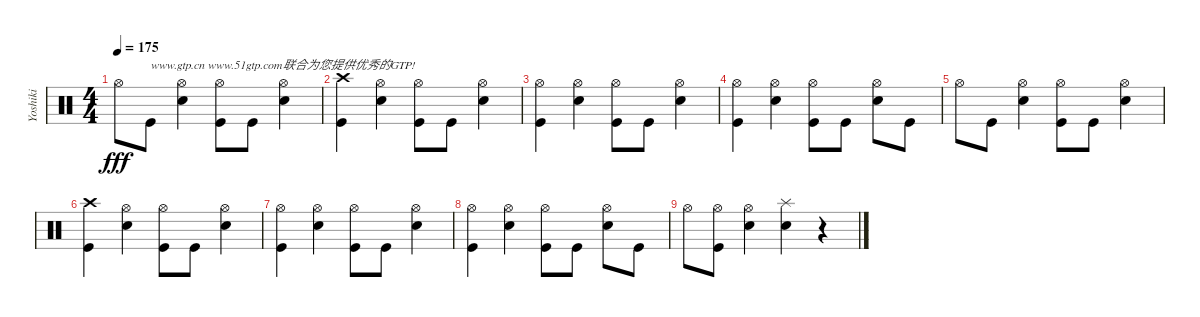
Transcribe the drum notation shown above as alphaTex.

\track ("Yoshiki" "Yoshiki") {instrument percussion}
\staff {score}
\articulation defaults
\ts (4 4)
\tempo 175
\clef neutral
\ks c "Hi-Hat (open)".8{dy fff} "Kick (hit)".8{txt "www.gtp.cn www.51gtp.com联合为您提供优秀的GTP!"}
("Hi-Hat (open)" "Snare (hit) 2").4 ("Hi-Hat (open)" "Kick (hit)").8 "Kick (hit)".8 ("Hi-Hat (open)" "Snare (hit) 2").4 |
("Crash high (hit)" "Kick (hit)").4 ("Hi-Hat (open)" "Snare (hit) 2").4 ("Hi-Hat (open)" "Kick (hit)").8 "Kick (hit)".8 ("Hi-Hat (open)" "Snare (hit) 2").4 |
("Hi-Hat (open)" "Kick (hit)").4 ("Hi-Hat (open)" "Snare (hit) 2").4 ("Hi-Hat (open)" "Kick (hit)").8 "Kick (hit)".8 ("Hi-Hat (open)" "Snare (hit) 2").4 |
("Hi-Hat (open)" "Kick (hit)").4 ("Hi-Hat (open)" "Snare (hit) 2").4 ("Hi-Hat (open)" "Kick (hit)").8 "Kick (hit)".8 ("Hi-Hat (open)" "Snare (hit) 2").8 "Kick (hit)".8 |
"Hi-Hat (open)".8 "Kick (hit)".8 ("Hi-Hat (open)" "Snare (hit) 2").4 ("Hi-Hat (open)" "Kick (hit)").8 "Kick (hit)".8 ("Hi-Hat (open)" "Snare (hit) 2").4 |
("Crash high (hit)" "Kick (hit)").4 ("Hi-Hat (open)" "Snare (hit) 2").4 ("Hi-Hat (open)" "Kick (hit)").8 "Kick (hit)".8 ("Hi-Hat (open)" "Snare (hit) 2").4 |
("Hi-Hat (open)" "Kick (hit)").4 ("Hi-Hat (open)" "Snare (hit) 2").4 ("Hi-Hat (open)" "Kick (hit)").8 "Kick (hit)".8 ("Hi-Hat (open)" "Snare (hit) 2").4 |
("Hi-Hat (open)" "Kick (hit)").4 ("Hi-Hat (open)" "Snare (hit) 2").4 ("Hi-Hat (open)" "Kick (hit)").8 "Kick (hit)".8 ("Hi-Hat (open)" "Snare (hit) 2").8 "Kick (hit)".8 |
"Hi-Hat (open)".8{txt " "} ("Hi-Hat (open)" "Kick (hit)").8 ("Hi-Hat (open)" "Snare (hit) 2").4 ("Splash (hit)" "Snare (hit) 2").4 r.4
